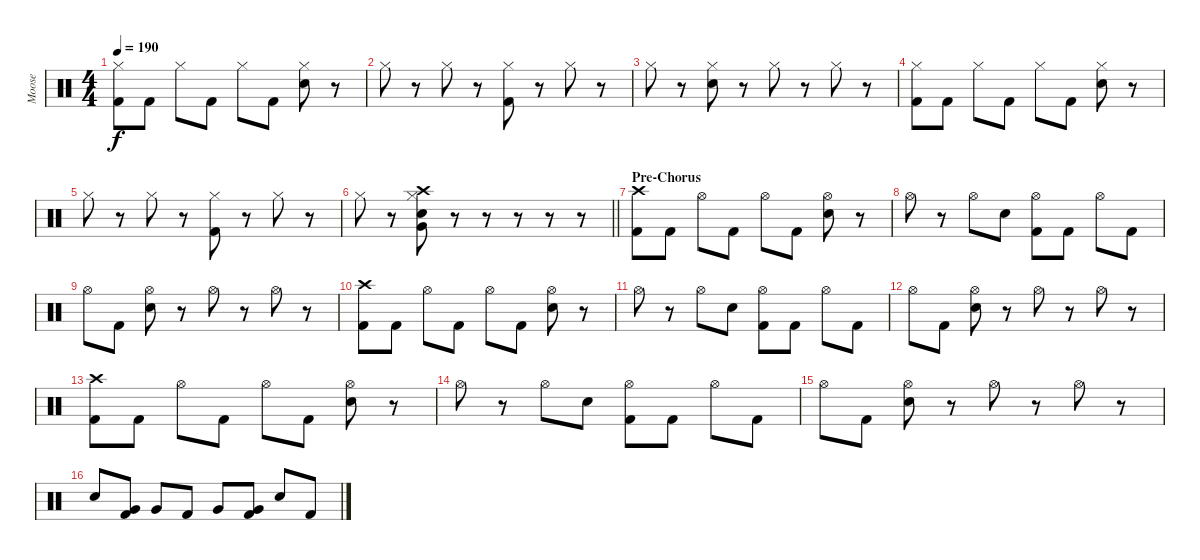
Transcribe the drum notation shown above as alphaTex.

\track ("Moose" "Moose") {instrument percussion}
\staff {score}
\articulation defaults
\ts (4 4)
\tempo 190
\clef neutral
\ks c
("Hi-Hat (closed)" "Kick (hit) 2").8{dy f} "Kick (hit) 2".8 "Hi-Hat (closed)".8 "Kick (hit) 2".8 "Hi-Hat (closed)".8 "Kick (hit) 2".8 ("Hi-Hat (closed)" "Snare (hit) 2").8 r.8 |
"Hi-Hat (closed)".8 r.8 "Hi-Hat (closed)".8 r.8 ("Hi-Hat (closed)" "Kick (hit) 2").8 r.8 "Hi-Hat (closed)".8 r.8 |
"Hi-Hat (closed)".8 r.8 ("Hi-Hat (closed)" "Snare (hit) 2").8 r.8 "Hi-Hat (closed)".8 r.8 "Hi-Hat (closed)".8 r.8 |
("Hi-Hat (closed)" "Kick (hit) 2").8 "Kick (hit) 2".8 "Hi-Hat (closed)".8 "Kick (hit) 2".8 "Hi-Hat (closed)".8 "Kick (hit) 2".8 ("Hi-Hat (closed)" "Snare (hit) 2").8 r.8 |
"Hi-Hat (closed)".8 r.8 "Hi-Hat (closed)".8 r.8 ("Hi-Hat (closed)" "Kick (hit) 2").8 r.8 "Hi-Hat (closed)".8 r.8 |
\barLineRight lightlight "Hi-Hat (closed)".8
r.8 ("Crash high (hit)" "Snare (hit) 2" "Very Low Tom (hit)" "Hi-Hat (closed)").8 r.8 r.8 r.8 r.8 r.8 |
\section ("" "Pre-Chorus")
("Crash high (hit)" "Kick (hit) 2").8 "Kick (hit) 2".8 "Hi-Hat (open)".8 "Kick (hit) 2".8 "Hi-Hat (open)".8 "Kick (hit) 2".8 ("Hi-Hat (open)" "Snare (hit) 2").8 r.8 |
"Hi-Hat (open)".8 r.8 "Hi-Hat (open)".8 "Snare (hit) 2".8 ("Hi-Hat (open)" "Kick (hit) 2").8 "Kick (hit) 2".8 "Hi-Hat (open)".8 "Kick (hit) 2".8 |
"Hi-Hat (open)".8 "Kick (hit) 2".8 ("Hi-Hat (open)" "Snare (hit) 2").8 r.8 "Hi-Hat (open)".8 r.8 "Hi-Hat (open)".8 r.8 |
("Crash high (hit)" "Kick (hit) 2").8 "Kick (hit) 2".8 "Hi-Hat (open)".8 "Kick (hit) 2".8 "Hi-Hat (open)".8 "Kick (hit) 2".8 ("Hi-Hat (open)" "Snare (hit) 2").8 r.8 |
"Hi-Hat (open)".8 r.8 "Hi-Hat (open)".8 "Snare (hit) 2".8 ("Hi-Hat (open)" "Kick (hit) 2").8 "Kick (hit) 2".8 "Hi-Hat (open)".8 "Kick (hit) 2".8 |
"Hi-Hat (open)".8 "Kick (hit) 2".8 ("Hi-Hat (open)" "Snare (hit) 2").8 r.8 "Hi-Hat (open)".8 r.8 "Hi-Hat (open)".8 r.8 |
("Crash high (hit)" "Kick (hit) 2").8 "Kick (hit) 2".8 "Hi-Hat (open)".8 "Kick (hit) 2".8 "Hi-Hat (open)".8 "Kick (hit) 2".8 ("Hi-Hat (open)" "Snare (hit) 2").8 r.8 |
"Hi-Hat (open)".8 r.8 "Hi-Hat (open)".8 "Snare (hit) 2".8 ("Hi-Hat (open)" "Kick (hit) 2").8 "Kick (hit) 2".8 "Hi-Hat (open)".8 "Kick (hit) 2".8 |
"Hi-Hat (open)".8 "Kick (hit) 2".8 ("Hi-Hat (open)" "Snare (hit) 2").8 r.8 "Hi-Hat (open)".8 r.8 "Hi-Hat (open)".8 r.8 |
"Snare (hit) 2".8 ("Very Low Tom (hit)" "Kick (hit) 2").8 "Very Low Tom (hit)".8 "Kick (hit) 2".8 "Very Low Tom (hit)".8 ("Very Low Tom (hit)" "Kick (hit) 2").8 "Snare (hit) 2".8 "Kick (hit) 2".8
